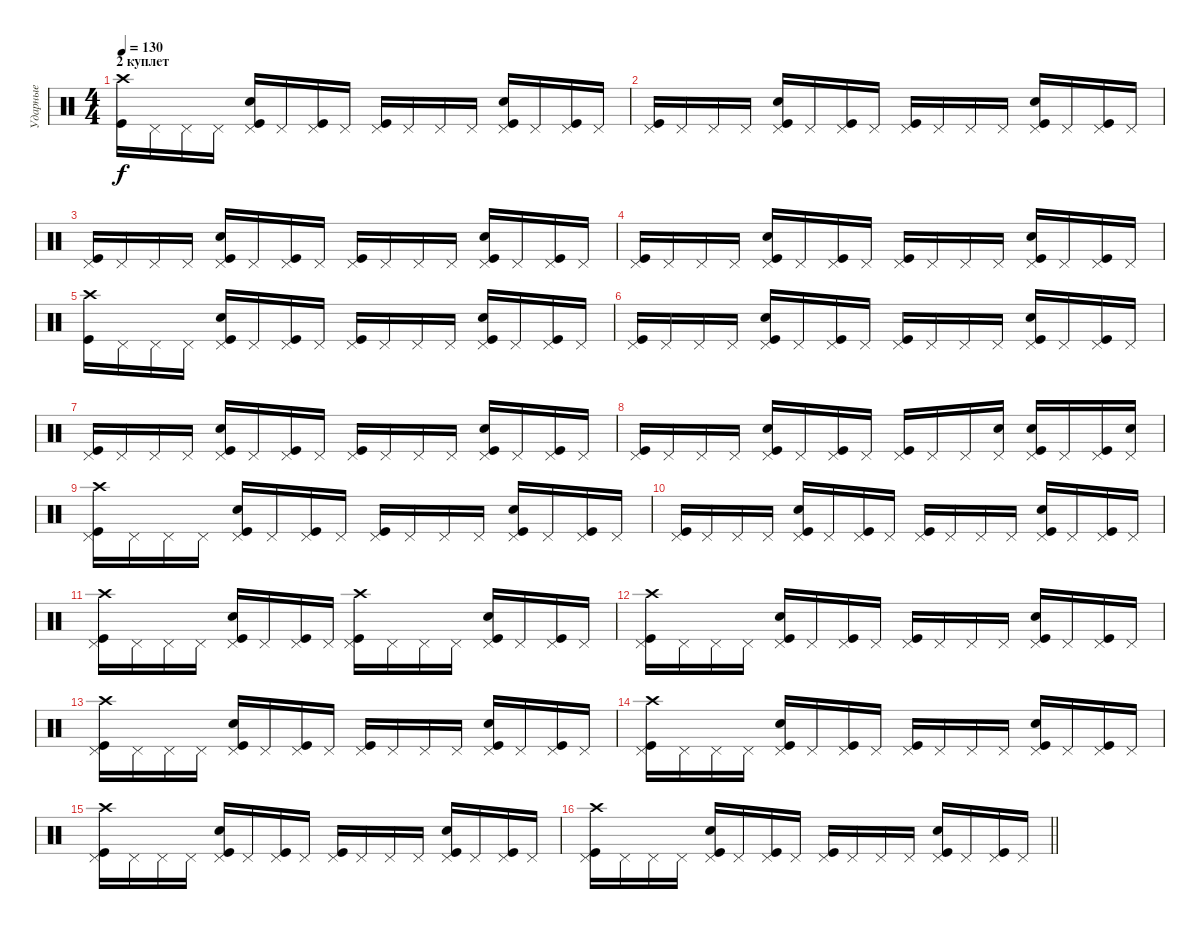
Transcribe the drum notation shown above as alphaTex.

\track ("Ударные" "Ударные") {instrument percussion}
\staff {score}
\articulation defaults
\ts (4 4)
\section ("" "2 куплет")
\tempo 130
\clef neutral
\ks c
("Crash high (hit)" "Kick (hit)").16{dy f} "Pedal Hi-Hat (hit)".16 "Pedal Hi-Hat (hit)".16 "Pedal Hi-Hat (hit)".16 ("Pedal Hi-Hat (hit)" "Kick (hit)" "Snare (hit) 2").16 "Pedal Hi-Hat (hit)".16 ("Pedal Hi-Hat (hit)" "Kick (hit)").16 "Pedal Hi-Hat (hit)".16 ("Pedal Hi-Hat (hit)" "Kick (hit)").16 "Pedal Hi-Hat (hit)".16 "Pedal Hi-Hat (hit)".16 "Pedal Hi-Hat (hit)".16 ("Pedal Hi-Hat (hit)" "Kick (hit)" "Snare (hit) 2").16 "Pedal Hi-Hat (hit)".16 ("Pedal Hi-Hat (hit)" "Kick (hit)").16 "Pedal Hi-Hat (hit)".16 |
("Pedal Hi-Hat (hit)" "Kick (hit)").16 "Pedal Hi-Hat (hit)".16 "Pedal Hi-Hat (hit)".16 "Pedal Hi-Hat (hit)".16 ("Pedal Hi-Hat (hit)" "Kick (hit)" "Snare (hit) 2").16 "Pedal Hi-Hat (hit)".16 ("Pedal Hi-Hat (hit)" "Kick (hit)").16 "Pedal Hi-Hat (hit)".16 ("Pedal Hi-Hat (hit)" "Kick (hit)").16 "Pedal Hi-Hat (hit)".16 "Pedal Hi-Hat (hit)".16 "Pedal Hi-Hat (hit)".16 ("Pedal Hi-Hat (hit)" "Kick (hit)" "Snare (hit) 2").16 "Pedal Hi-Hat (hit)".16 ("Pedal Hi-Hat (hit)" "Kick (hit)").16 "Pedal Hi-Hat (hit)".16 |
("Pedal Hi-Hat (hit)" "Kick (hit)").16 "Pedal Hi-Hat (hit)".16 "Pedal Hi-Hat (hit)".16 "Pedal Hi-Hat (hit)".16 ("Pedal Hi-Hat (hit)" "Kick (hit)" "Snare (hit) 2").16 "Pedal Hi-Hat (hit)".16 ("Pedal Hi-Hat (hit)" "Kick (hit)").16 "Pedal Hi-Hat (hit)".16 ("Pedal Hi-Hat (hit)" "Kick (hit)").16 "Pedal Hi-Hat (hit)".16 "Pedal Hi-Hat (hit)".16 "Pedal Hi-Hat (hit)".16 ("Pedal Hi-Hat (hit)" "Kick (hit)" "Snare (hit) 2").16 "Pedal Hi-Hat (hit)".16 ("Pedal Hi-Hat (hit)" "Kick (hit)").16 "Pedal Hi-Hat (hit)".16 |
("Pedal Hi-Hat (hit)" "Kick (hit)").16 "Pedal Hi-Hat (hit)".16 "Pedal Hi-Hat (hit)".16 "Pedal Hi-Hat (hit)".16 ("Pedal Hi-Hat (hit)" "Kick (hit)" "Snare (hit) 2").16 "Pedal Hi-Hat (hit)".16 ("Pedal Hi-Hat (hit)" "Kick (hit)").16 "Pedal Hi-Hat (hit)".16 ("Pedal Hi-Hat (hit)" "Kick (hit)").16 "Pedal Hi-Hat (hit)".16 "Pedal Hi-Hat (hit)".16 "Pedal Hi-Hat (hit)".16 ("Pedal Hi-Hat (hit)" "Kick (hit)" "Snare (hit) 2").16 "Pedal Hi-Hat (hit)".16 ("Pedal Hi-Hat (hit)" "Kick (hit)").16 "Pedal Hi-Hat (hit)".16 |
("Crash high (hit)" "Kick (hit)").16 "Pedal Hi-Hat (hit)".16 "Pedal Hi-Hat (hit)".16 "Pedal Hi-Hat (hit)".16 ("Pedal Hi-Hat (hit)" "Kick (hit)" "Snare (hit) 2").16 "Pedal Hi-Hat (hit)".16 ("Pedal Hi-Hat (hit)" "Kick (hit)").16 "Pedal Hi-Hat (hit)".16 ("Pedal Hi-Hat (hit)" "Kick (hit)").16 "Pedal Hi-Hat (hit)".16 "Pedal Hi-Hat (hit)".16 "Pedal Hi-Hat (hit)".16 ("Pedal Hi-Hat (hit)" "Kick (hit)" "Snare (hit) 2").16 "Pedal Hi-Hat (hit)".16 ("Pedal Hi-Hat (hit)" "Kick (hit)").16 "Pedal Hi-Hat (hit)".16 |
("Pedal Hi-Hat (hit)" "Kick (hit)").16 "Pedal Hi-Hat (hit)".16 "Pedal Hi-Hat (hit)".16 "Pedal Hi-Hat (hit)".16 ("Pedal Hi-Hat (hit)" "Kick (hit)" "Snare (hit) 2").16 "Pedal Hi-Hat (hit)".16 ("Pedal Hi-Hat (hit)" "Kick (hit)").16 "Pedal Hi-Hat (hit)".16 ("Pedal Hi-Hat (hit)" "Kick (hit)").16 "Pedal Hi-Hat (hit)".16 "Pedal Hi-Hat (hit)".16 "Pedal Hi-Hat (hit)".16 ("Pedal Hi-Hat (hit)" "Kick (hit)" "Snare (hit) 2").16 "Pedal Hi-Hat (hit)".16 ("Pedal Hi-Hat (hit)" "Kick (hit)").16 "Pedal Hi-Hat (hit)".16 |
("Pedal Hi-Hat (hit)" "Kick (hit)").16 "Pedal Hi-Hat (hit)".16 "Pedal Hi-Hat (hit)".16 "Pedal Hi-Hat (hit)".16 ("Pedal Hi-Hat (hit)" "Kick (hit)" "Snare (hit) 2").16 "Pedal Hi-Hat (hit)".16 ("Pedal Hi-Hat (hit)" "Kick (hit)").16 "Pedal Hi-Hat (hit)".16 ("Pedal Hi-Hat (hit)" "Kick (hit)").16 "Pedal Hi-Hat (hit)".16 "Pedal Hi-Hat (hit)".16 "Pedal Hi-Hat (hit)".16 ("Pedal Hi-Hat (hit)" "Kick (hit)" "Snare (hit) 2").16 "Pedal Hi-Hat (hit)".16 ("Pedal Hi-Hat (hit)" "Kick (hit)").16 "Pedal Hi-Hat (hit)".16 |
("Pedal Hi-Hat (hit)" "Kick (hit)").16 "Pedal Hi-Hat (hit)".16 "Pedal Hi-Hat (hit)".16 "Pedal Hi-Hat (hit)".16 ("Pedal Hi-Hat (hit)" "Kick (hit)" "Snare (hit) 2").16 "Pedal Hi-Hat (hit)".16 ("Pedal Hi-Hat (hit)" "Kick (hit)").16 "Pedal Hi-Hat (hit)".16 ("Pedal Hi-Hat (hit)" "Kick (hit)").16 "Pedal Hi-Hat (hit)".16 "Pedal Hi-Hat (hit)".16 ("Pedal Hi-Hat (hit)" "Snare (hit) 2").16 ("Pedal Hi-Hat (hit)" "Kick (hit)" "Snare (hit) 2").16 "Pedal Hi-Hat (hit)".16 ("Pedal Hi-Hat (hit)" "Kick (hit)").16 ("Pedal Hi-Hat (hit)" "Snare (hit) 2").16 |
("Pedal Hi-Hat (hit)" "Kick (hit)" "Crash high (hit)").16 "Pedal Hi-Hat (hit)".16 "Pedal Hi-Hat (hit)".16 "Pedal Hi-Hat (hit)".16 ("Pedal Hi-Hat (hit)" "Kick (hit)" "Snare (hit) 2").16 "Pedal Hi-Hat (hit)".16 ("Pedal Hi-Hat (hit)" "Kick (hit)").16 "Pedal Hi-Hat (hit)".16 ("Pedal Hi-Hat (hit)" "Kick (hit)").16 "Pedal Hi-Hat (hit)".16 "Pedal Hi-Hat (hit)".16 "Pedal Hi-Hat (hit)".16 ("Pedal Hi-Hat (hit)" "Kick (hit)" "Snare (hit) 2").16 "Pedal Hi-Hat (hit)".16 ("Pedal Hi-Hat (hit)" "Kick (hit)").16 "Pedal Hi-Hat (hit)".16 |
("Pedal Hi-Hat (hit)" "Kick (hit)").16 "Pedal Hi-Hat (hit)".16 "Pedal Hi-Hat (hit)".16 "Pedal Hi-Hat (hit)".16 ("Pedal Hi-Hat (hit)" "Kick (hit)" "Snare (hit) 2").16 "Pedal Hi-Hat (hit)".16 ("Pedal Hi-Hat (hit)" "Kick (hit)").16 "Pedal Hi-Hat (hit)".16 ("Pedal Hi-Hat (hit)" "Kick (hit)").16 "Pedal Hi-Hat (hit)".16 "Pedal Hi-Hat (hit)".16 "Pedal Hi-Hat (hit)".16 ("Pedal Hi-Hat (hit)" "Kick (hit)" "Snare (hit) 2").16 "Pedal Hi-Hat (hit)".16 ("Pedal Hi-Hat (hit)" "Kick (hit)").16 "Pedal Hi-Hat (hit)".16 |
("Pedal Hi-Hat (hit)" "Kick (hit)" "Crash high (hit)").16 "Pedal Hi-Hat (hit)".16 "Pedal Hi-Hat (hit)".16 "Pedal Hi-Hat (hit)".16 ("Pedal Hi-Hat (hit)" "Kick (hit)" "Snare (hit) 2").16 "Pedal Hi-Hat (hit)".16 ("Pedal Hi-Hat (hit)" "Kick (hit)").16 "Pedal Hi-Hat (hit)".16 ("Pedal Hi-Hat (hit)" "Kick (hit)" "Crash high (hit)").16 "Pedal Hi-Hat (hit)".16 "Pedal Hi-Hat (hit)".16 "Pedal Hi-Hat (hit)".16 ("Pedal Hi-Hat (hit)" "Kick (hit)" "Snare (hit) 2").16 "Pedal Hi-Hat (hit)".16 ("Pedal Hi-Hat (hit)" "Kick (hit)").16 "Pedal Hi-Hat (hit)".16 |
("Pedal Hi-Hat (hit)" "Kick (hit)" "Crash high (hit)").16 "Pedal Hi-Hat (hit)".16 "Pedal Hi-Hat (hit)".16 "Pedal Hi-Hat (hit)".16 ("Pedal Hi-Hat (hit)" "Kick (hit)" "Snare (hit) 2").16 "Pedal Hi-Hat (hit)".16 ("Pedal Hi-Hat (hit)" "Kick (hit)").16 "Pedal Hi-Hat (hit)".16 ("Pedal Hi-Hat (hit)" "Kick (hit)").16 "Pedal Hi-Hat (hit)".16 "Pedal Hi-Hat (hit)".16 "Pedal Hi-Hat (hit)".16 ("Pedal Hi-Hat (hit)" "Kick (hit)" "Snare (hit) 2").16 "Pedal Hi-Hat (hit)".16 ("Pedal Hi-Hat (hit)" "Kick (hit)").16 "Pedal Hi-Hat (hit)".16 |
("Pedal Hi-Hat (hit)" "Kick (hit)" "Crash high (hit)").16 "Pedal Hi-Hat (hit)".16 "Pedal Hi-Hat (hit)".16 "Pedal Hi-Hat (hit)".16 ("Pedal Hi-Hat (hit)" "Kick (hit)" "Snare (hit) 2").16 "Pedal Hi-Hat (hit)".16 ("Pedal Hi-Hat (hit)" "Kick (hit)").16 "Pedal Hi-Hat (hit)".16 ("Pedal Hi-Hat (hit)" "Kick (hit)").16 "Pedal Hi-Hat (hit)".16 "Pedal Hi-Hat (hit)".16 "Pedal Hi-Hat (hit)".16 ("Pedal Hi-Hat (hit)" "Kick (hit)" "Snare (hit) 2").16 "Pedal Hi-Hat (hit)".16 ("Pedal Hi-Hat (hit)" "Kick (hit)").16 "Pedal Hi-Hat (hit)".16 |
("Pedal Hi-Hat (hit)" "Kick (hit)" "Crash high (hit)").16 "Pedal Hi-Hat (hit)".16 "Pedal Hi-Hat (hit)".16 "Pedal Hi-Hat (hit)".16 ("Pedal Hi-Hat (hit)" "Kick (hit)" "Snare (hit) 2").16 "Pedal Hi-Hat (hit)".16 ("Pedal Hi-Hat (hit)" "Kick (hit)").16 "Pedal Hi-Hat (hit)".16 ("Pedal Hi-Hat (hit)" "Kick (hit)").16 "Pedal Hi-Hat (hit)".16 "Pedal Hi-Hat (hit)".16 "Pedal Hi-Hat (hit)".16 ("Pedal Hi-Hat (hit)" "Kick (hit)" "Snare (hit) 2").16 "Pedal Hi-Hat (hit)".16 ("Pedal Hi-Hat (hit)" "Kick (hit)").16 "Pedal Hi-Hat (hit)".16 |
("Pedal Hi-Hat (hit)" "Kick (hit)" "Crash high (hit)").16 "Pedal Hi-Hat (hit)".16 "Pedal Hi-Hat (hit)".16 "Pedal Hi-Hat (hit)".16 ("Pedal Hi-Hat (hit)" "Kick (hit)" "Snare (hit) 2").16 "Pedal Hi-Hat (hit)".16 ("Pedal Hi-Hat (hit)" "Kick (hit)").16 "Pedal Hi-Hat (hit)".16 ("Pedal Hi-Hat (hit)" "Kick (hit)").16 "Pedal Hi-Hat (hit)".16 "Pedal Hi-Hat (hit)".16 "Pedal Hi-Hat (hit)".16 ("Pedal Hi-Hat (hit)" "Kick (hit)" "Snare (hit) 2").16 "Pedal Hi-Hat (hit)".16 ("Pedal Hi-Hat (hit)" "Kick (hit)").16 "Pedal Hi-Hat (hit)".16 |
\barLineRight lightlight
("Pedal Hi-Hat (hit)" "Kick (hit)" "Crash high (hit)").16 "Pedal Hi-Hat (hit)".16 "Pedal Hi-Hat (hit)".16 "Pedal Hi-Hat (hit)".16 ("Pedal Hi-Hat (hit)" "Kick (hit)" "Snare (hit) 2").16 "Pedal Hi-Hat (hit)".16 ("Pedal Hi-Hat (hit)" "Kick (hit)").16 "Pedal Hi-Hat (hit)".16 ("Pedal Hi-Hat (hit)" "Kick (hit)").16 "Pedal Hi-Hat (hit)".16 "Pedal Hi-Hat (hit)".16 "Pedal Hi-Hat (hit)".16 ("Pedal Hi-Hat (hit)" "Kick (hit)" "Snare (hit) 2").16 "Pedal Hi-Hat (hit)".16 ("Pedal Hi-Hat (hit)" "Kick (hit)").16 "Pedal Hi-Hat (hit)".16
